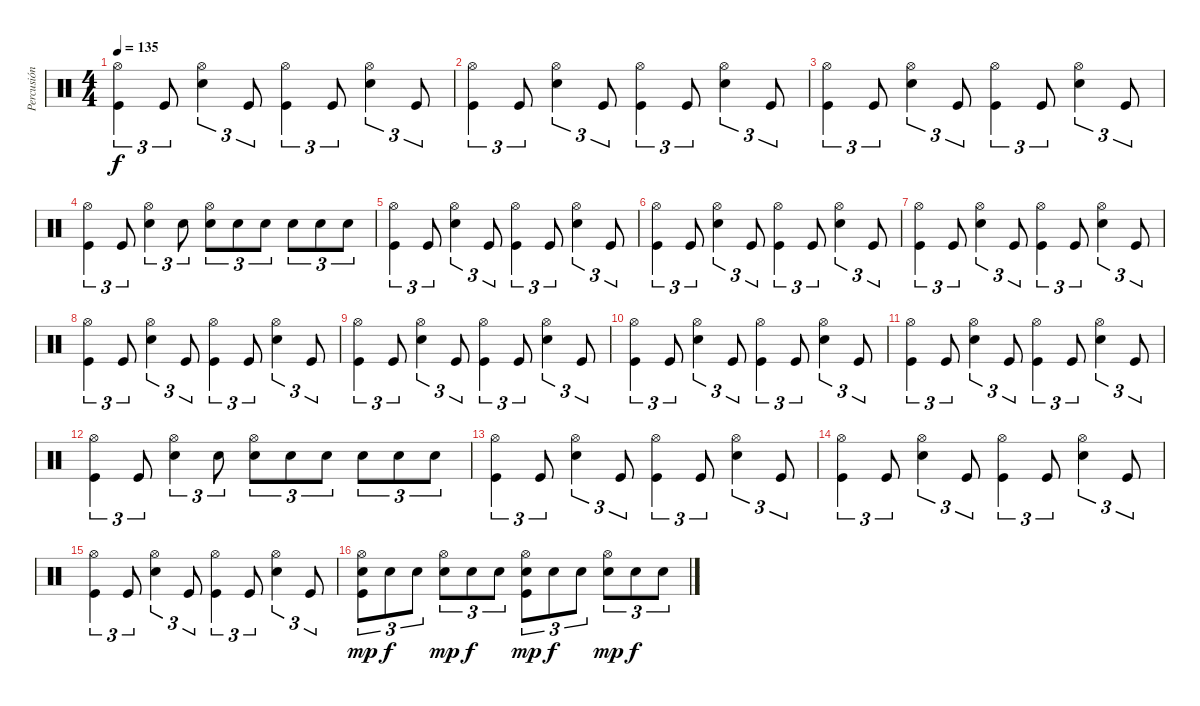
\track ("Percusión" "Percusión") {instrument percussion}
\staff {score}
\articulation defaults
\ts (4 4)
\tempo 135
\clef neutral
\ks c
("Hi-Hat (open)" "Kick (hit)").4{tu (3 2) dy f} "Kick (hit)".8{tu (3 2)} ("Hi-Hat (open)" "Snare (hit) 2").4{tu (3 2)} "Kick (hit)".8{tu (3 2)} ("Hi-Hat (open)" "Kick (hit)").4{tu (3 2)} "Kick (hit)".8{tu (3 2)} ("Hi-Hat (open)" "Snare (hit) 2").4{tu (3 2)} "Kick (hit)".8{tu (3 2)} |
("Hi-Hat (open)" "Kick (hit)").4{tu (3 2)} "Kick (hit)".8{tu (3 2)} ("Hi-Hat (open)" "Snare (hit) 2").4{tu (3 2)} "Kick (hit)".8{tu (3 2)} ("Hi-Hat (open)" "Kick (hit)").4{tu (3 2)} "Kick (hit)".8{tu (3 2)} ("Hi-Hat (open)" "Snare (hit) 2").4{tu (3 2)} "Kick (hit)".8{tu (3 2)} |
("Hi-Hat (open)" "Kick (hit)").4{tu (3 2)} "Kick (hit)".8{tu (3 2)} ("Hi-Hat (open)" "Snare (hit) 2").4{tu (3 2)} "Kick (hit)".8{tu (3 2)} ("Hi-Hat (open)" "Kick (hit)").4{tu (3 2)} "Kick (hit)".8{tu (3 2)} ("Hi-Hat (open)" "Snare (hit) 2").4{tu (3 2)} "Kick (hit)".8{tu (3 2)} |
("Hi-Hat (open)" "Kick (hit)").4{tu (3 2)} "Kick (hit)".8{tu (3 2)} ("Hi-Hat (open)" "Snare (hit) 2").4{tu (3 2)} "Snare (hit) 2".8{tu (3 2)} ("Hi-Hat (open)" "Snare (hit) 2").8{tu (3 2)} "Snare (hit) 2".8{tu (3 2)} "Snare (hit) 2".8{tu (3 2)} "Snare (hit) 2".8{tu (3 2)} "Snare (hit) 2".8{tu (3 2)} "Snare (hit) 2".8{tu (3 2)} |
("Hi-Hat (open)" "Kick (hit)").4{tu (3 2)} "Kick (hit)".8{tu (3 2)} ("Hi-Hat (open)" "Snare (hit) 2").4{tu (3 2)} "Kick (hit)".8{tu (3 2)} ("Hi-Hat (open)" "Kick (hit)").4{tu (3 2)} "Kick (hit)".8{tu (3 2)} ("Hi-Hat (open)" "Snare (hit) 2").4{tu (3 2)} "Kick (hit)".8{tu (3 2)} |
("Hi-Hat (open)" "Kick (hit)").4{tu (3 2)} "Kick (hit)".8{tu (3 2)} ("Hi-Hat (open)" "Snare (hit) 2").4{tu (3 2)} "Kick (hit)".8{tu (3 2)} ("Hi-Hat (open)" "Kick (hit)").4{tu (3 2)} "Kick (hit)".8{tu (3 2)} ("Hi-Hat (open)" "Snare (hit) 2").4{tu (3 2)} "Kick (hit)".8{tu (3 2)} |
("Hi-Hat (open)" "Kick (hit)").4{tu (3 2)} "Kick (hit)".8{tu (3 2)} ("Hi-Hat (open)" "Snare (hit) 2").4{tu (3 2)} "Kick (hit)".8{tu (3 2)} ("Hi-Hat (open)" "Kick (hit)").4{tu (3 2)} "Kick (hit)".8{tu (3 2)} ("Hi-Hat (open)" "Snare (hit) 2").4{tu (3 2)} "Kick (hit)".8{tu (3 2)} |
("Hi-Hat (open)" "Kick (hit)").4{tu (3 2)} "Kick (hit)".8{tu (3 2)} ("Hi-Hat (open)" "Snare (hit) 2").4{tu (3 2)} "Kick (hit)".8{tu (3 2)} ("Hi-Hat (open)" "Kick (hit)").4{tu (3 2)} "Kick (hit)".8{tu (3 2)} ("Hi-Hat (open)" "Snare (hit) 2").4{tu (3 2)} "Kick (hit)".8{tu (3 2)} |
("Hi-Hat (open)" "Kick (hit)").4{tu (3 2)} "Kick (hit)".8{tu (3 2)} ("Hi-Hat (open)" "Snare (hit) 2").4{tu (3 2)} "Kick (hit)".8{tu (3 2)} ("Hi-Hat (open)" "Kick (hit)").4{tu (3 2)} "Kick (hit)".8{tu (3 2)} ("Hi-Hat (open)" "Snare (hit) 2").4{tu (3 2)} "Kick (hit)".8{tu (3 2)} |
("Hi-Hat (open)" "Kick (hit)").4{tu (3 2)} "Kick (hit)".8{tu (3 2)} ("Hi-Hat (open)" "Snare (hit) 2").4{tu (3 2)} "Kick (hit)".8{tu (3 2)} ("Hi-Hat (open)" "Kick (hit)").4{tu (3 2)} "Kick (hit)".8{tu (3 2)} ("Hi-Hat (open)" "Snare (hit) 2").4{tu (3 2)} "Kick (hit)".8{tu (3 2)} |
("Hi-Hat (open)" "Kick (hit)").4{tu (3 2)} "Kick (hit)".8{tu (3 2)} ("Hi-Hat (open)" "Snare (hit) 2").4{tu (3 2)} "Kick (hit)".8{tu (3 2)} ("Hi-Hat (open)" "Kick (hit)").4{tu (3 2)} "Kick (hit)".8{tu (3 2)} ("Hi-Hat (open)" "Snare (hit) 2").4{tu (3 2)} "Kick (hit)".8{tu (3 2)} |
("Hi-Hat (open)" "Kick (hit)").4{tu (3 2)} "Kick (hit)".8{tu (3 2)} ("Hi-Hat (open)" "Snare (hit) 2").4{tu (3 2)} "Snare (hit) 2".8{tu (3 2)} ("Hi-Hat (open)" "Snare (hit) 2").8{tu (3 2)} "Snare (hit) 2".8{tu (3 2)} "Snare (hit) 2".8{tu (3 2)} "Snare (hit) 2".8{tu (3 2)} "Snare (hit) 2".8{tu (3 2)} "Snare (hit) 2".8{tu (3 2)} |
("Hi-Hat (open)" "Kick (hit)").4{tu (3 2)} "Kick (hit)".8{tu (3 2)} ("Hi-Hat (open)" "Snare (hit) 2").4{tu (3 2)} "Kick (hit)".8{tu (3 2)} ("Hi-Hat (open)" "Kick (hit)").4{tu (3 2)} "Kick (hit)".8{tu (3 2)} ("Hi-Hat (open)" "Snare (hit) 2").4{tu (3 2)} "Kick (hit)".8{tu (3 2)} |
("Hi-Hat (open)" "Kick (hit)").4{tu (3 2)} "Kick (hit)".8{tu (3 2)} ("Hi-Hat (open)" "Snare (hit) 2").4{tu (3 2)} "Kick (hit)".8{tu (3 2)} ("Hi-Hat (open)" "Kick (hit)").4{tu (3 2)} "Kick (hit)".8{tu (3 2)} ("Hi-Hat (open)" "Snare (hit) 2").4{tu (3 2)} "Kick (hit)".8{tu (3 2)} |
("Hi-Hat (open)" "Kick (hit)").4{tu (3 2)} "Kick (hit)".8{tu (3 2)} ("Hi-Hat (open)" "Snare (hit) 2").4{tu (3 2)} "Kick (hit)".8{tu (3 2)} ("Hi-Hat (open)" "Kick (hit)").4{tu (3 2)} "Kick (hit)".8{tu (3 2)} ("Hi-Hat (open)" "Snare (hit) 2").4{tu (3 2)} "Kick (hit)".8{tu (3 2)} |
("Hi-Hat (open)" "Snare (hit) 2" "Kick (hit)").8{tu (3 2) dy mp} "Snare (hit) 2".8{tu (3 2) dy f} "Snare (hit) 2".8{tu (3 2)} ("Hi-Hat (open)" "Snare (hit) 2").8{tu (3 2) dy mp} "Snare (hit) 2".8{tu (3 2) dy f} "Snare (hit) 2".8{tu (3 2)} ("Hi-Hat (open)" "Snare (hit) 2" "Kick (hit)").8{tu (3 2) dy mp} "Snare (hit) 2".8{tu (3 2) dy f} "Snare (hit) 2".8{tu (3 2)} ("Hi-Hat (open)" "Snare (hit) 2").8{tu (3 2) dy mp} "Snare (hit) 2".8{tu (3 2) dy f} "Snare (hit) 2".8{tu (3 2)}
